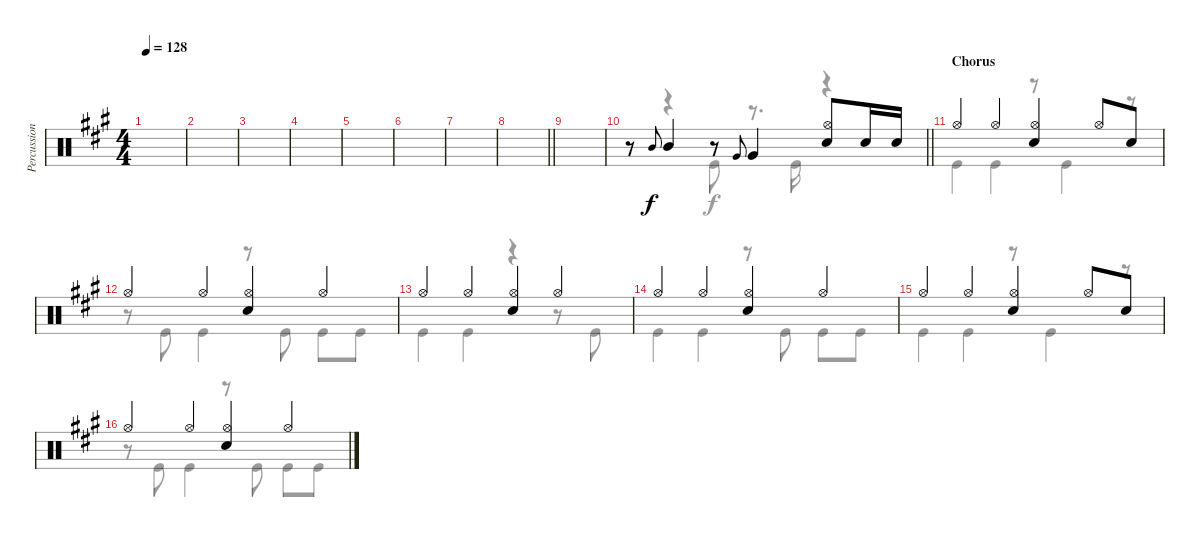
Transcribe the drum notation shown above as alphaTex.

\track ("Percussion" "Percussion") {instrument percussion}
\staff {score}
\articulation defaults
\voice
\ts (4 4)
\tempo 128
\clef neutral
\ks f#minor
|
|
|
|
|
|
|
\barLineRight lightlight
|
\section ("" "")
|
\barLineRight lightlight
r.8 "Mid Tom (hit)".8{gr onbeat} "Mid Tom (hit)".4 r.8 "Very Low Tom (hit)".8{gr onbeat} "Very Low Tom (hit)".4 ("Hi-Hat (open)" "Electric Snare (hit)").8 "Electric Snare (hit)".16 "Electric Snare (hit)".16 |
\section ("" "Chorus")
"Hi-Hat (open)".4 "Hi-Hat (open)".4 ("Hi-Hat (open)" "Electric Snare (hit)").4 "Hi-Hat (open)".8 "Electric Snare (hit)".8 |
"Hi-Hat (open)".4 "Hi-Hat (open)".4 ("Hi-Hat (open)" "Electric Snare (hit)").4 "Hi-Hat (open)".4 |
"Hi-Hat (open)".4 "Hi-Hat (open)".4 ("Hi-Hat (open)" "Electric Snare (hit)").4 "Hi-Hat (open)".4 |
"Hi-Hat (open)".4 "Hi-Hat (open)".4 ("Hi-Hat (open)" "Electric Snare (hit)").4 "Hi-Hat (open)".4 |
"Hi-Hat (open)".4 "Hi-Hat (open)".4 ("Hi-Hat (open)" "Electric Snare (hit)").4 "Hi-Hat (open)".8 "Electric Snare (hit)".8 |
"Hi-Hat (open)".4 "Hi-Hat (open)".4 ("Hi-Hat (open)" "Electric Snare (hit)").4 "Hi-Hat (open)".4
\voice
\clef neutral
\ottava regular
\simile none
\ks f#minor
|
|
|
|
|
|
|
\barLineRight lightlight
|
|
\barLineRight lightlight
r.8 r.4 "Kick (hit)".8 r.8{d} "Kick (hit)".16 r.4 |
"Kick (hit)".4 "Kick (hit)".4 r.8 "Kick (hit)".4 r.8 |
r.8 "Kick (hit)".8 "Kick (hit)".4 r.8 "Kick (hit)".8 "Kick (hit)".8 "Kick (hit)".8 |
"Kick (hit)".4 "Kick (hit)".4 r.4 r.8 "Kick (hit)".8 |
"Kick (hit)".4 "Kick (hit)".4 r.8 "Kick (hit)".8 "Kick (hit)".8 "Kick (hit)".8 |
"Kick (hit)".4 "Kick (hit)".4 r.8 "Kick (hit)".4 r.8 |
r.8 "Kick (hit)".8 "Kick (hit)".4 r.8 "Kick (hit)".8 "Kick (hit)".8 "Kick (hit)".8
